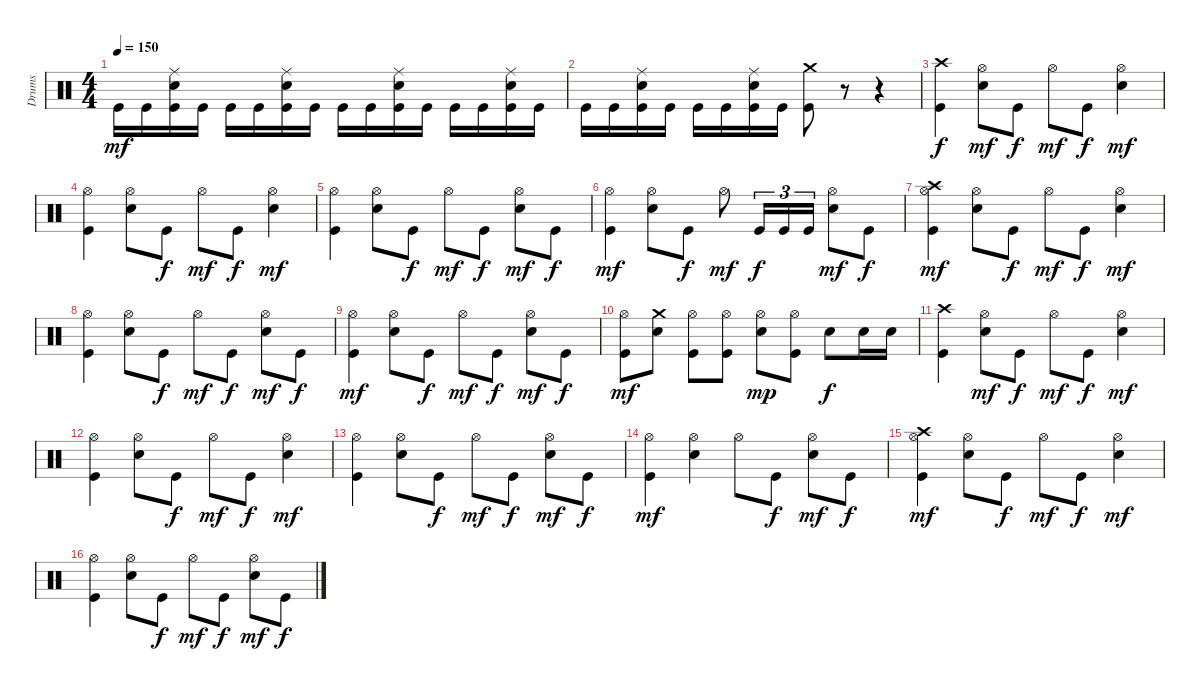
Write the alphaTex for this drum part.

\track ("Drums" "Drums") {instrument percussion}
\staff {score}
\articulation defaults
\ts (4 4)
\tempo 150
\clef neutral
\ks c "Kick (hit)".16{dy mf} "Kick (hit)".16
("Kick (hit)" "Electric Snare (hit)" "Ride (middle)").16 "Kick (hit)".16 "Kick (hit)".16 "Kick (hit)".16 ("Kick (hit)" "Electric Snare (hit)" "Ride (middle)").16 "Kick (hit)".16 "Kick (hit)".16 "Kick (hit)".16 ("Kick (hit)" "Electric Snare (hit)" "Ride (middle)").16 "Kick (hit)".16 "Kick (hit)".16 "Kick (hit)".16 ("Kick (hit)" "Electric Snare (hit)" "Ride (middle)").16 "Kick (hit)".16 |
"Kick (hit)".16 "Kick (hit)".16 ("Kick (hit)" "Electric Snare (hit)" "Ride (middle)").16 "Kick (hit)".16 "Kick (hit)".16 "Kick (hit)".16 ("Kick (hit)" "Electric Snare (hit)" "Ride (middle)").16 "Kick (hit)".16 ("Kick (hit)" "Crash medium (hit)").8 r.8 r.4 |
("Kick (hit)" "Crash high (hit)").4{dy f} ("Electric Snare (hit)" "Hi-Hat (open)").8{dy mf} "Kick (hit)".8{dy f} "Hi-Hat (open)".8{dy mf} "Kick (hit)".8{dy f} ("Electric Snare (hit)" "Hi-Hat (open)").4{dy mf} |
("Kick (hit)" "Hi-Hat (open)").4 ("Electric Snare (hit)" "Hi-Hat (open)").8 "Kick (hit)".8{dy f} "Hi-Hat (open)".8{dy mf} "Kick (hit)".8{dy f} ("Electric Snare (hit)" "Hi-Hat (open)").4{dy mf} |
("Kick (hit)" "Hi-Hat (open)").4 ("Electric Snare (hit)" "Hi-Hat (open)").8 "Kick (hit)".8{dy f} "Hi-Hat (open)".8{dy mf} "Kick (hit)".8{dy f} ("Electric Snare (hit)" "Hi-Hat (open)").8{dy mf} "Kick (hit)".8{dy f} |
("Kick (hit)" "Hi-Hat (open)").4{dy mf} ("Electric Snare (hit)" "Hi-Hat (open)").8 "Kick (hit)".8{dy f} "Hi-Hat (open)".8{dy mf} "Kick (hit)".16{tu (3 2) dy f} "Kick (hit)".16{tu (3 2)} "Kick (hit)".16{tu (3 2)} ("Electric Snare (hit)" "Hi-Hat (open)").8{dy mf} "Kick (hit)".8{dy f} |
("Kick (hit)" "Hi-Hat (open)" "Crash high (hit)").4{dy mf} ("Electric Snare (hit)" "Hi-Hat (open)").8 "Kick (hit)".8{dy f} "Hi-Hat (open)".8{dy mf} "Kick (hit)".8{dy f} ("Electric Snare (hit)" "Hi-Hat (open)").4{dy mf} |
("Kick (hit)" "Hi-Hat (open)").4 ("Electric Snare (hit)" "Hi-Hat (open)").8 "Kick (hit)".8{dy f} "Hi-Hat (open)".8{dy mf} "Kick (hit)".8{dy f} ("Electric Snare (hit)" "Hi-Hat (open)").8{dy mf} "Kick (hit)".8{dy f} |
("Kick (hit)" "Hi-Hat (open)").4{dy mf} ("Electric Snare (hit)" "Hi-Hat (open)").8 "Kick (hit)".8{dy f} "Hi-Hat (open)".8{dy mf} "Kick (hit)".8{dy f} ("Electric Snare (hit)" "Hi-Hat (open)").8{dy mf} "Kick (hit)".8{dy f} |
("Kick (hit)" "Hi-Hat (open)").8{dy mf} ("Electric Snare (hit)" "Crash medium (hit)").8 ("Kick (hit)" "Hi-Hat (open)").8 ("Kick (hit)" "Hi-Hat (open)").8 ("Electric Snare (hit)" "Hi-Hat (open)").8{dy mp} ("Kick (hit)" "Hi-Hat (open)").8 "Electric Snare (hit)".8{dy f} "Electric Snare (hit)".16 "Electric Snare (hit)".16 |
("Kick (hit)" "Crash high (hit)").4 ("Electric Snare (hit)" "Hi-Hat (open)").8{dy mf} "Kick (hit)".8{dy f} "Hi-Hat (open)".8{dy mf} "Kick (hit)".8{dy f} ("Electric Snare (hit)" "Hi-Hat (open)").4{dy mf} |
("Kick (hit)" "Hi-Hat (open)").4 ("Electric Snare (hit)" "Hi-Hat (open)").8 "Kick (hit)".8{dy f} "Hi-Hat (open)".8{dy mf} "Kick (hit)".8{dy f} ("Electric Snare (hit)" "Hi-Hat (open)").4{dy mf} |
("Kick (hit)" "Hi-Hat (open)").4 ("Electric Snare (hit)" "Hi-Hat (open)").8 "Kick (hit)".8{dy f} "Hi-Hat (open)".8{dy mf} "Kick (hit)".8{dy f} ("Electric Snare (hit)" "Hi-Hat (open)").8{dy mf} "Kick (hit)".8{dy f} |
("Kick (hit)" "Hi-Hat (open)").4{dy mf} ("Electric Snare (hit)" "Hi-Hat (open)").4 "Hi-Hat (open)".8 "Kick (hit)".8{dy f} ("Electric Snare (hit)" "Hi-Hat (open)").8{dy mf} "Kick (hit)".8{dy f} |
("Kick (hit)" "Hi-Hat (open)" "Crash high (hit)").4{dy mf} ("Electric Snare (hit)" "Hi-Hat (open)").8 "Kick (hit)".8{dy f} "Hi-Hat (open)".8{dy mf} "Kick (hit)".8{dy f} ("Electric Snare (hit)" "Hi-Hat (open)").4{dy mf} |
("Kick (hit)" "Hi-Hat (open)").4 ("Electric Snare (hit)" "Hi-Hat (open)").8 "Kick (hit)".8{dy f} "Hi-Hat (open)".8{dy mf} "Kick (hit)".8{dy f} ("Electric Snare (hit)" "Hi-Hat (open)").8{dy mf} "Kick (hit)".8{dy f}
